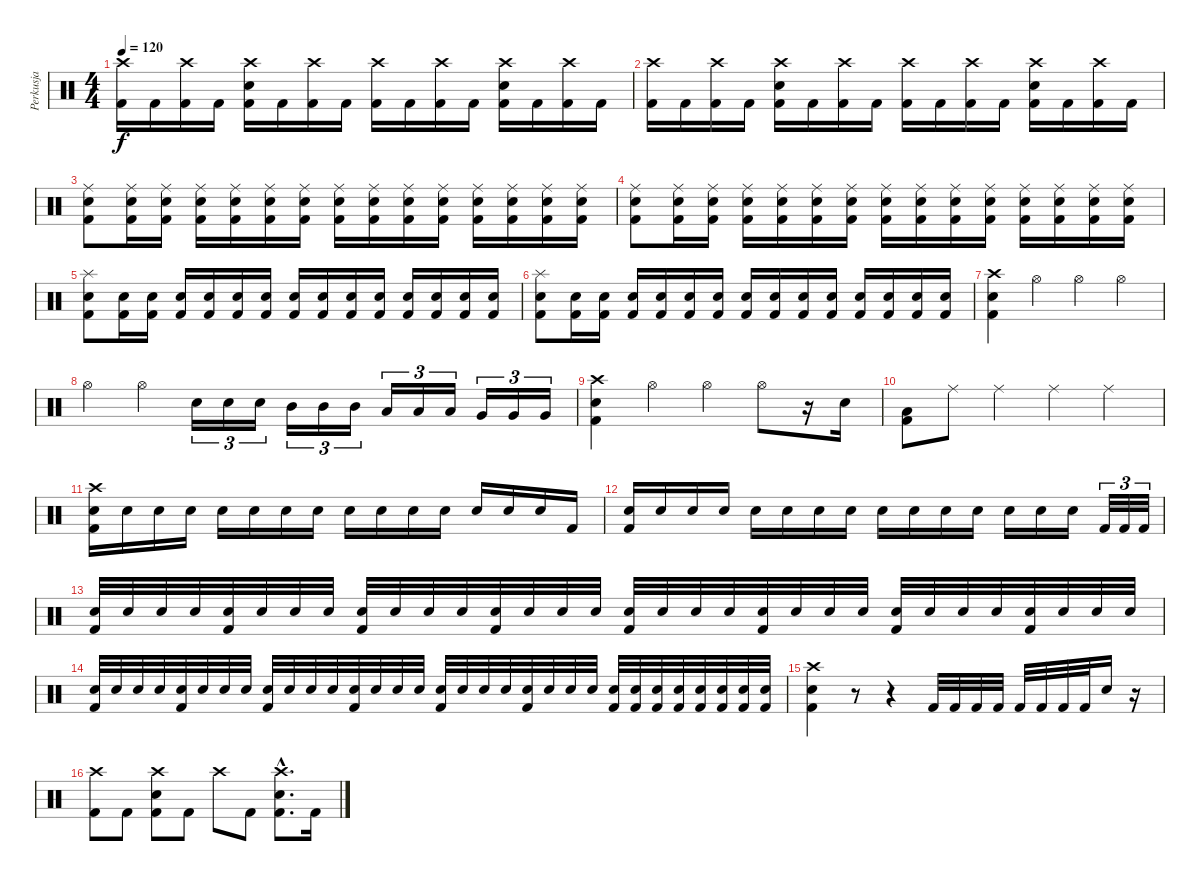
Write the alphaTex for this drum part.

\track ("Perkusja" "Perkusja") {instrument percussion}
\staff {score}
\articulation defaults
\ts (4 4)
\tempo 120
\clef neutral
\ks c
("Crash high (hit)" "Kick (hit) 2").16{dy f} "Kick (hit) 2".16 ("Crash high (hit)" "Kick (hit) 2").16 "Kick (hit) 2".16 ("Crash high (hit)" "Electric Snare (hit)" "Kick (hit) 2").16 "Kick (hit) 2".16 ("Crash high (hit)" "Kick (hit) 2").16 "Kick (hit) 2".16 ("Crash high (hit)" "Kick (hit) 2").16 "Kick (hit) 2".16 ("Crash high (hit)" "Kick (hit) 2").16 "Kick (hit) 2".16 ("Crash high (hit)" "Electric Snare (hit)" "Kick (hit) 2").16 "Kick (hit) 2".16 ("Crash high (hit)" "Kick (hit) 2").16 "Kick (hit) 2".16 |
("Crash high (hit)" "Kick (hit) 2").16 "Kick (hit) 2".16 ("Crash high (hit)" "Kick (hit) 2").16 "Kick (hit) 2".16 ("Crash high (hit)" "Electric Snare (hit)" "Kick (hit) 2").16 "Kick (hit) 2".16 ("Crash high (hit)" "Kick (hit) 2").16 "Kick (hit) 2".16 ("Crash high (hit)" "Kick (hit) 2").16 "Kick (hit) 2".16 ("Crash high (hit)" "Kick (hit) 2").16 "Kick (hit) 2".16 ("Crash high (hit)" "Electric Snare (hit)" "Kick (hit) 2").16 "Kick (hit) 2".16 ("Crash high (hit)" "Kick (hit) 2").16 "Kick (hit) 2".16 |
("Ride (middle)" "Electric Snare (hit)" "Kick (hit) 2").8 ("Ride (middle)" "Electric Snare (hit)" "Kick (hit) 2").16 ("Ride (middle)" "Electric Snare (hit)" "Kick (hit) 2").16 ("Ride (middle)" "Electric Snare (hit)" "Kick (hit) 2").16 ("Ride (middle)" "Electric Snare (hit)" "Kick (hit) 2").16 ("Ride (middle)" "Electric Snare (hit)" "Kick (hit) 2").16 ("Ride (middle)" "Electric Snare (hit)" "Kick (hit) 2").16 ("Ride (middle)" "Electric Snare (hit)" "Kick (hit) 2").16 ("Ride (middle)" "Electric Snare (hit)" "Kick (hit) 2").16 ("Ride (middle)" "Electric Snare (hit)" "Kick (hit) 2").16 ("Ride (middle)" "Electric Snare (hit)" "Kick (hit) 2").16 ("Ride (middle)" "Electric Snare (hit)" "Kick (hit) 2").16 ("Ride (middle)" "Electric Snare (hit)" "Kick (hit) 2").16 ("Ride (middle)" "Electric Snare (hit)" "Kick (hit) 2").16 ("Ride (middle)" "Electric Snare (hit)" "Kick (hit) 2").16 |
("Ride (middle)" "Electric Snare (hit)" "Kick (hit) 2").8 ("Ride (middle)" "Electric Snare (hit)" "Kick (hit) 2").16 ("Ride (middle)" "Electric Snare (hit)" "Kick (hit) 2").16 ("Ride (middle)" "Electric Snare (hit)" "Kick (hit) 2").16 ("Ride (middle)" "Electric Snare (hit)" "Kick (hit) 2").16 ("Ride (middle)" "Electric Snare (hit)" "Kick (hit) 2").16 ("Ride (middle)" "Electric Snare (hit)" "Kick (hit) 2").16 ("Ride (middle)" "Electric Snare (hit)" "Kick (hit) 2").16 ("Ride (middle)" "Electric Snare (hit)" "Kick (hit) 2").16 ("Ride (middle)" "Electric Snare (hit)" "Kick (hit) 2").16 ("Ride (middle)" "Electric Snare (hit)" "Kick (hit) 2").16 ("Ride (middle)" "Electric Snare (hit)" "Kick (hit) 2").16 ("Ride (middle)" "Electric Snare (hit)" "Kick (hit) 2").16 ("Ride (middle)" "Electric Snare (hit)" "Kick (hit) 2").16 ("Ride (middle)" "Electric Snare (hit)" "Kick (hit) 2").16 |
("Splash (hit)" "Electric Snare (hit)" "Kick (hit) 2").8 ("Electric Snare (hit)" "Kick (hit) 2").16 ("Electric Snare (hit)" "Kick (hit) 2").16 ("Electric Snare (hit)" "Kick (hit) 2").16 ("Electric Snare (hit)" "Kick (hit) 2").16 ("Electric Snare (hit)" "Kick (hit) 2").16 ("Electric Snare (hit)" "Kick (hit) 2").16 ("Electric Snare (hit)" "Kick (hit) 2").16 ("Electric Snare (hit)" "Kick (hit) 2").16 ("Electric Snare (hit)" "Kick (hit) 2").16 ("Electric Snare (hit)" "Kick (hit) 2").16 ("Electric Snare (hit)" "Kick (hit) 2").16 ("Electric Snare (hit)" "Kick (hit) 2").16 ("Electric Snare (hit)" "Kick (hit) 2").16 ("Electric Snare (hit)" "Kick (hit) 2").16 |
("Splash (hit)" "Electric Snare (hit)" "Kick (hit) 2").8 ("Electric Snare (hit)" "Kick (hit) 2").16 ("Electric Snare (hit)" "Kick (hit) 2").16 ("Electric Snare (hit)" "Kick (hit) 2").16 ("Electric Snare (hit)" "Kick (hit) 2").16 ("Electric Snare (hit)" "Kick (hit) 2").16 ("Electric Snare (hit)" "Kick (hit) 2").16 ("Electric Snare (hit)" "Kick (hit) 2").16 ("Electric Snare (hit)" "Kick (hit) 2").16 ("Electric Snare (hit)" "Kick (hit) 2").16 ("Electric Snare (hit)" "Kick (hit) 2").16 ("Electric Snare (hit)" "Kick (hit) 2").16 ("Electric Snare (hit)" "Kick (hit) 2").16 ("Electric Snare (hit)" "Kick (hit) 2").16 ("Electric Snare (hit)" "Kick (hit) 2").16 |
("Crash high (hit)" "Electric Snare (hit)" "Kick (hit) 2").4 "Hi-Hat (open)".4 "Hi-Hat (open)".4 "Hi-Hat (open)".4 |
"Hi-Hat (open)".4 "Hi-Hat (open)".4 "Electric Snare (hit)".16{tu (3 2)} "Electric Snare (hit)".16{tu (3 2)} "Electric Snare (hit)".16{tu (3 2)} "Mid Tom (hit)".16{tu (3 2)} "Mid Tom (hit)".16{tu (3 2)} "Mid Tom (hit)".16{tu (3 2)} "Low Tom (hit)".16{tu (3 2)} "Low Tom (hit)".16{tu (3 2)} "Low Tom (hit)".16{tu (3 2)} "Very Low Tom (hit)".16{tu (3 2)} "Very Low Tom (hit)".16{tu (3 2)} "Very Low Tom (hit)".16{tu (3 2)} |
("Crash high (hit)" "Electric Snare (hit)" "Kick (hit) 2").4 "Hi-Hat (open)".4 "Hi-Hat (open)".4 "Hi-Hat (open)".8 r.16 "Electric Snare (hit)".16 |
("Low Floor Tom (hit)" "Kick (hit) 2").8 "Ride (middle)".8 "Ride (middle)".4 "Ride (middle)".4 "Ride (middle)".4 |
("Crash high (hit)" "Electric Snare (hit)" "Kick (hit) 2").16 "Electric Snare (hit)".16 "Electric Snare (hit)".16 "Electric Snare (hit)".16 "Electric Snare (hit)".16 "Electric Snare (hit)".16 "Electric Snare (hit)".16 "Electric Snare (hit)".16 "Electric Snare (hit)".16 "Electric Snare (hit)".16 "Electric Snare (hit)".16 "Electric Snare (hit)".16 "Electric Snare (hit)".16 "Electric Snare (hit)".16 "Electric Snare (hit)".16 "Kick (hit) 2".16 |
("Electric Snare (hit)" "Kick (hit) 2").16 "Electric Snare (hit)".16 "Electric Snare (hit)".16 "Electric Snare (hit)".16 "Electric Snare (hit)".16 "Electric Snare (hit)".16 "Electric Snare (hit)".16 "Electric Snare (hit)".16 "Electric Snare (hit)".16 "Electric Snare (hit)".16 "Electric Snare (hit)".16 "Electric Snare (hit)".16 "Electric Snare (hit)".16 "Electric Snare (hit)".16 "Electric Snare (hit)".16 "Kick (hit) 2".32{tu (3 2)} "Kick (hit) 2".32{tu (3 2)} "Kick (hit) 2".32{tu (3 2)} |
("Electric Snare (hit)" "Kick (hit) 2").32 "Electric Snare (hit)".32 "Electric Snare (hit)".32 "Electric Snare (hit)".32 ("Electric Snare (hit)" "Kick (hit) 2").32 "Electric Snare (hit)".32 "Electric Snare (hit)".32 "Electric Snare (hit)".32 ("Electric Snare (hit)" "Kick (hit) 2").32 "Electric Snare (hit)".32 "Electric Snare (hit)".32 "Electric Snare (hit)".32 ("Electric Snare (hit)" "Kick (hit) 2").32 "Electric Snare (hit)".32 "Electric Snare (hit)".32 "Electric Snare (hit)".32 ("Electric Snare (hit)" "Kick (hit) 2").32 "Electric Snare (hit)".32 "Electric Snare (hit)".32 "Electric Snare (hit)".32 ("Electric Snare (hit)" "Kick (hit) 2").32 "Electric Snare (hit)".32 "Electric Snare (hit)".32 "Electric Snare (hit)".32 ("Electric Snare (hit)" "Kick (hit) 2").32 "Electric Snare (hit)".32 "Electric Snare (hit)".32 "Electric Snare (hit)".32 ("Electric Snare (hit)" "Kick (hit) 2").32 "Electric Snare (hit)".32 "Electric Snare (hit)".32 "Electric Snare (hit)".32 |
("Electric Snare (hit)" "Kick (hit) 2").32 "Electric Snare (hit)".32 "Electric Snare (hit)".32 "Electric Snare (hit)".32 ("Electric Snare (hit)" "Kick (hit) 2").32 "Electric Snare (hit)".32 "Electric Snare (hit)".32 "Electric Snare (hit)".32 ("Electric Snare (hit)" "Kick (hit) 2").32 "Electric Snare (hit)".32 "Electric Snare (hit)".32 "Electric Snare (hit)".32 ("Electric Snare (hit)" "Kick (hit) 2").32 "Electric Snare (hit)".32 "Electric Snare (hit)".32 "Electric Snare (hit)".32 ("Electric Snare (hit)" "Kick (hit) 2").32 "Electric Snare (hit)".32 "Electric Snare (hit)".32 "Electric Snare (hit)".32 ("Electric Snare (hit)" "Kick (hit) 2").32 "Electric Snare (hit)".32 "Electric Snare (hit)".32 "Electric Snare (hit)".32 ("Electric Snare (hit)" "Kick (hit) 2").32 ("Electric Snare (hit)" "Kick (hit) 2").32 ("Electric Snare (hit)" "Kick (hit) 2").32 ("Electric Snare (hit)" "Kick (hit) 2").32 ("Electric Snare (hit)" "Kick (hit) 2").32 ("Electric Snare (hit)" "Kick (hit) 2").32 ("Electric Snare (hit)" "Kick (hit) 2").32 ("Electric Snare (hit)" "Kick (hit) 2").32 |
("Crash high (hit)" "Electric Snare (hit)" "Kick (hit) 2").4 r.8 r.4 "Kick (hit) 2".32 "Kick (hit) 2".32 "Kick (hit) 2".32 "Kick (hit) 2".32 "Kick (hit) 2".32 "Kick (hit) 2".32 "Kick (hit) 2".32 "Kick (hit) 2".32 "Electric Snare (hit)".16 r.16 |
("Crash high (hit)" "Kick (hit) 2").8 "Kick (hit) 2".8 ("Crash high (hit)" "Electric Snare (hit)" "Kick (hit) 2").8 "Kick (hit) 2".8 "Crash high (hit)".8 "Kick (hit) 2".8 ("Crash high (hit)"{hac} "Electric Snare (hit)"{hac} "Kick (hit) 2"{hac}).8{d} "Kick (hit) 2".16
